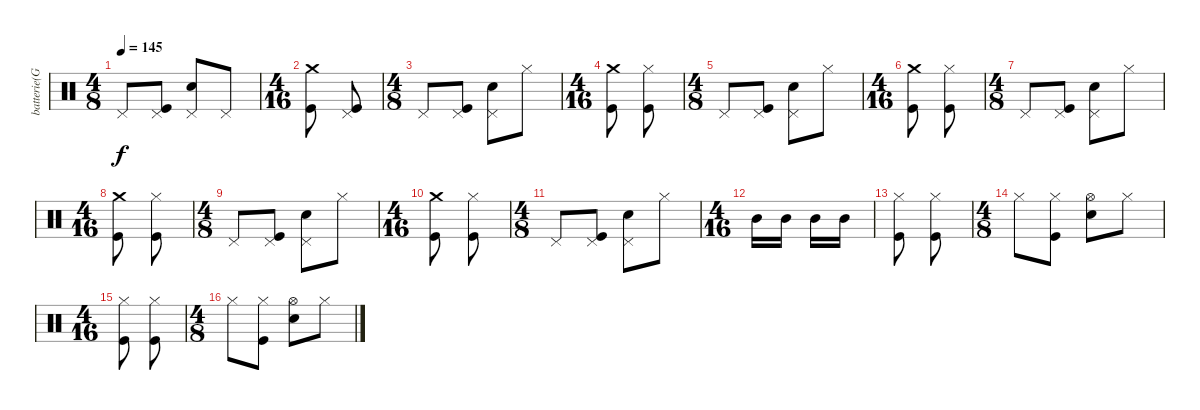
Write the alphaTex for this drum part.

\track ("batterie(Granberg)" "batterie(G") {instrument percussion}
\staff {score}
\articulation defaults
\ts (4 8)
\tempo 145
\clef neutral
\ks c "Pedal Hi-Hat (hit)".8{dy f}
("Pedal Hi-Hat (hit)" "Kick (hit)").8 ("Pedal Hi-Hat (hit)" "Snare (hit) 2").8 "Pedal Hi-Hat (hit)".8 |
\ts (4 16)
("Crash medium (hit)" "Kick (hit)").8 ("Pedal Hi-Hat (hit)" "Kick (hit)").8 |
\ts (4 8)
"Pedal Hi-Hat (hit)".8 ("Pedal Hi-Hat (hit)" "Kick (hit)").8 ("Pedal Hi-Hat (hit)" "Snare (hit) 2").8 "Hi-Hat (closed)".8 |
\ts (4 16)
("Crash medium (hit)" "Kick (hit)").8 ("Hi-Hat (closed)" "Kick (hit)").8 |
\ts (4 8)
"Pedal Hi-Hat (hit)".8 ("Pedal Hi-Hat (hit)" "Kick (hit)").8 ("Pedal Hi-Hat (hit)" "Snare (hit) 2").8 "Hi-Hat (closed)".8 |
\ts (4 16)
("Crash medium (hit)" "Kick (hit)").8 ("Hi-Hat (closed)" "Kick (hit)").8 |
\ts (4 8)
"Pedal Hi-Hat (hit)".8 ("Pedal Hi-Hat (hit)" "Kick (hit)").8 ("Pedal Hi-Hat (hit)" "Snare (hit) 2").8 "Hi-Hat (closed)".8 |
\ts (4 16)
("Crash medium (hit)" "Kick (hit)").8 ("Hi-Hat (closed)" "Kick (hit)").8 |
\ts (4 8)
"Pedal Hi-Hat (hit)".8 ("Pedal Hi-Hat (hit)" "Kick (hit)").8 ("Pedal Hi-Hat (hit)" "Snare (hit) 2").8 "Hi-Hat (closed)".8 |
\ts (4 16)
("Crash medium (hit)" "Kick (hit)").8 ("Hi-Hat (closed)" "Kick (hit)").8 |
\ts (4 8)
"Pedal Hi-Hat (hit)".8 ("Pedal Hi-Hat (hit)" "Kick (hit)").8 ("Pedal Hi-Hat (hit)" "Snare (hit) 2").8 "Hi-Hat (closed)".8 |
\ts (4 16)
"Mid Tom (hit)".16 "Mid Tom (hit)".16 "Mid Tom (hit)".16 "Mid Tom (hit)".16 |
("Hi-Hat (closed)" "Kick (hit)").8 ("Hi-Hat (closed)" "Kick (hit)").8 |
\ts (4 8)
"Hi-Hat (closed)".8 ("Hi-Hat (closed)" "Kick (hit)").8 ("Hi-Hat (open)" "Snare (hit) 2").8 "Hi-Hat (closed)".8 |
\ts (4 16)
("Hi-Hat (closed)" "Kick (hit)").8 ("Hi-Hat (closed)" "Kick (hit)").8 |
\ts (4 8)
"Hi-Hat (closed)".8 ("Hi-Hat (closed)" "Kick (hit)").8 ("Hi-Hat (open)" "Snare (hit) 2").8 "Hi-Hat (closed)".8
